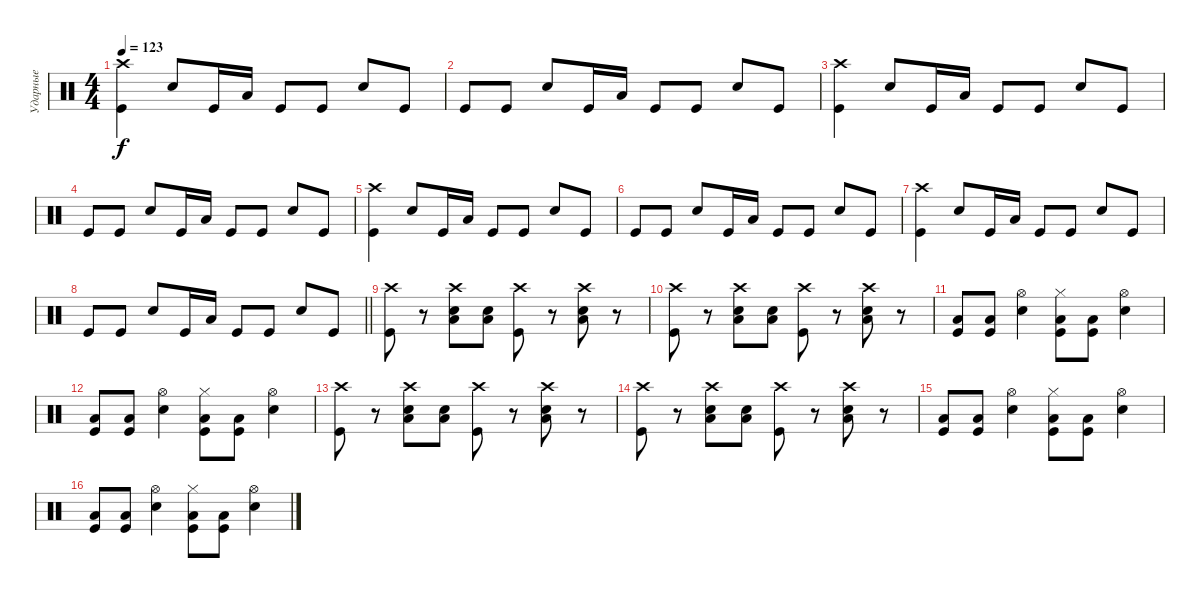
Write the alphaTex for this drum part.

\track ("Ударные" "Ударные") {instrument percussion}
\staff {score}
\articulation defaults
\ts (4 4)
\tempo 123
\clef neutral
\ks c
("Crash high (hit)" "Kick (hit)").4{dy f} "Electric Snare (hit)".8 "Kick (hit)".16 "Low Tom (hit)".16 "Kick (hit)".8 "Kick (hit)".8 "Electric Snare (hit)".8 "Kick (hit)".8 |
"Kick (hit)".8 "Kick (hit)".8 "Electric Snare (hit)".8 "Kick (hit)".16 "Low Tom (hit)".16 "Kick (hit)".8 "Kick (hit)".8 "Electric Snare (hit)".8 "Kick (hit)".8 |
("Crash high (hit)" "Kick (hit)").4 "Electric Snare (hit)".8 "Kick (hit)".16 "Low Tom (hit)".16 "Kick (hit)".8 "Kick (hit)".8 "Electric Snare (hit)".8 "Kick (hit)".8 |
"Kick (hit)".8 "Kick (hit)".8 "Electric Snare (hit)".8 "Kick (hit)".16 "Low Tom (hit)".16 "Kick (hit)".8 "Kick (hit)".8 "Electric Snare (hit)".8 "Kick (hit)".8 |
("Crash high (hit)" "Kick (hit)").4 "Electric Snare (hit)".8 "Kick (hit)".16 "Low Tom (hit)".16 "Kick (hit)".8 "Kick (hit)".8 "Electric Snare (hit)".8 "Kick (hit)".8 |
"Kick (hit)".8 "Kick (hit)".8 "Electric Snare (hit)".8 "Kick (hit)".16 "Low Tom (hit)".16 "Kick (hit)".8 "Kick (hit)".8 "Electric Snare (hit)".8 "Kick (hit)".8 |
("Crash high (hit)" "Kick (hit)").4 "Electric Snare (hit)".8 "Kick (hit)".16 "Low Tom (hit)".16 "Kick (hit)".8 "Kick (hit)".8 "Electric Snare (hit)".8 "Kick (hit)".8 |
\barLineRight lightlight "Kick (hit)".8 "Kick (hit)".8 "Electric Snare (hit)".8 "Kick (hit)".16 "Low Tom (hit)".16 "Kick (hit)".8 "Kick (hit)".8 "Electric Snare (hit)".8 "Kick (hit)".8
|
("Crash high (hit)" "Kick (hit)").8 r.8 ("Crash high (hit)" "Electric Snare (hit)" "Low Tom (hit)").8 ("Electric Snare (hit)" "Low Tom (hit)").8 ("Crash high (hit)" "Kick (hit)").8 r.8 ("Crash high (hit)" "Electric Snare (hit)" "Low Tom (hit)").8 r.8 |
("Crash high (hit)" "Kick (hit)").8 r.8 ("Crash high (hit)" "Electric Snare (hit)" "Low Tom (hit)").8 ("Electric Snare (hit)" "Low Tom (hit)").8 ("Crash high (hit)" "Kick (hit)").8 r.8 ("Crash high (hit)" "Electric Snare (hit)" "Low Tom (hit)").8 r.8 |
("Low Tom (hit)" "Kick (hit)").8 ("Low Tom (hit)" "Kick (hit)").8 ("Hi-Hat (open)" "Snare (hit) 2").4 ("Hi-Hat (closed)" "Low Tom (hit)" "Kick (hit)").8 ("Low Tom (hit)" "Kick (hit)").8 ("Hi-Hat (open)" "Snare (hit) 2").4 |
("Low Tom (hit)" "Kick (hit)").8 ("Low Tom (hit)" "Kick (hit)").8 ("Hi-Hat (open)" "Snare (hit) 2").4 ("Hi-Hat (closed)" "Low Tom (hit)" "Kick (hit)").8 ("Low Tom (hit)" "Kick (hit)").8 ("Hi-Hat (open)" "Snare (hit) 2").4 |
("Crash high (hit)" "Kick (hit)").8 r.8 ("Crash high (hit)" "Electric Snare (hit)" "Low Tom (hit)").8 ("Electric Snare (hit)" "Low Tom (hit)").8 ("Crash high (hit)" "Kick (hit)").8 r.8 ("Crash high (hit)" "Electric Snare (hit)" "Low Tom (hit)").8 r.8 |
("Crash high (hit)" "Kick (hit)").8 r.8 ("Crash high (hit)" "Electric Snare (hit)" "Low Tom (hit)").8 ("Electric Snare (hit)" "Low Tom (hit)").8 ("Crash high (hit)" "Kick (hit)").8 r.8 ("Crash high (hit)" "Electric Snare (hit)" "Low Tom (hit)").8 r.8 |
("Low Tom (hit)" "Kick (hit)").8 ("Low Tom (hit)" "Kick (hit)").8 ("Hi-Hat (open)" "Electric Snare (hit)").4 ("Hi-Hat (closed)" "Low Tom (hit)" "Kick (hit)").8 ("Low Tom (hit)" "Kick (hit)").8 ("Hi-Hat (open)" "Electric Snare (hit)").4 |
("Low Tom (hit)" "Kick (hit)").8 ("Low Tom (hit)" "Kick (hit)").8 ("Hi-Hat (open)" "Electric Snare (hit)").4 ("Hi-Hat (closed)" "Low Tom (hit)" "Kick (hit)").8 ("Low Tom (hit)" "Kick (hit)").8 ("Hi-Hat (open)" "Electric Snare (hit)").4
